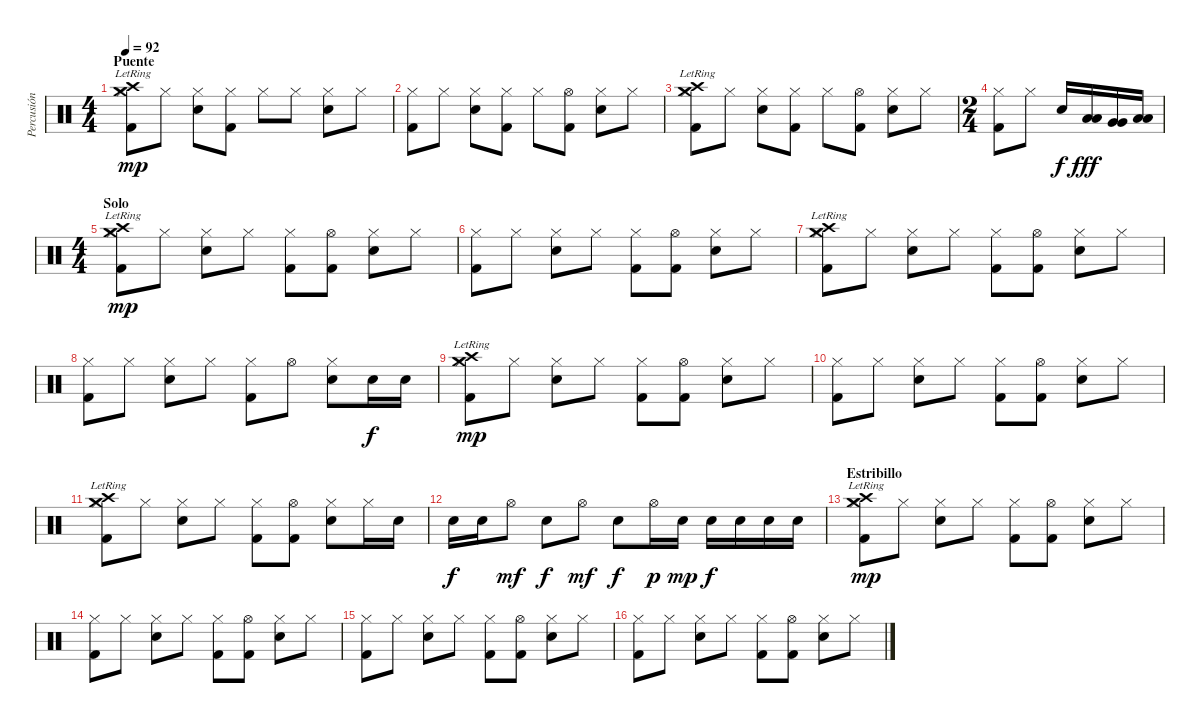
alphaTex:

\track ("Percusión" "Percusión") {instrument percussion}
\staff {score}
\articulation defaults
\ts (4 4)
\section ("" "Puente")
\tempo 92
\clef neutral
\ks c
("Crash high (hit)"{lr} "Crash medium (hit)" "Kick (hit) 2" "Hi-Hat (closed)").8{dy mp} "Hi-Hat (closed)".8 ("Snare (hit) 2" "Hi-Hat (closed)").8 ("Kick (hit) 2" "Hi-Hat (closed)").8 "Hi-Hat (closed)".8 "Hi-Hat (closed)".8 ("Snare (hit) 2" "Hi-Hat (closed)").8 "Hi-Hat (closed)".8 |
("Kick (hit) 2" "Hi-Hat (closed)").8 "Hi-Hat (closed)".8 ("Snare (hit) 2" "Hi-Hat (closed)").8 ("Kick (hit) 2" "Hi-Hat (closed)").8 "Hi-Hat (closed)".8 ("Kick (hit) 2" "Hi-Hat (open)").8 ("Snare (hit) 2" "Hi-Hat (closed)").8 "Hi-Hat (closed)".8 |
("Crash high (hit)"{lr} "Crash medium (hit)" "Kick (hit) 2" "Hi-Hat (closed)").8 "Hi-Hat (closed)".8 ("Snare (hit) 2" "Hi-Hat (closed)").8 ("Kick (hit) 2" "Hi-Hat (closed)").8 "Hi-Hat (closed)".8 ("Kick (hit) 2" "Hi-Hat (open)").8 ("Snare (hit) 2" "Hi-Hat (closed)").8 "Hi-Hat (closed)".8 |
\ts (2 4)
("Kick (hit) 2" "Hi-Hat (closed)").8 "Hi-Hat (closed)".8 "Snare (hit) 2".16{dy f} ("Low Tom (hit)" "Low Tom (hit)").16{dy fff} ("Very Low Tom (hit)" "Very Low Tom (hit)").16 ("Low Floor Tom (hit)" "Low Floor Tom (hit)").16 |
\ts (4 4)
\section ("" "Solo")
("Crash high (hit)"{lr} "Crash medium (hit)" "Kick (hit) 2" "Hi-Hat (closed)").8{dy mp} "Hi-Hat (closed)".8 ("Snare (hit) 2" "Hi-Hat (closed)").8 "Hi-Hat (closed)".8 ("Kick (hit) 2" "Hi-Hat (closed)").8 ("Kick (hit) 2" "Hi-Hat (open)").8 ("Snare (hit) 2" "Hi-Hat (closed)").8 "Hi-Hat (closed)".8 |
("Kick (hit) 2" "Hi-Hat (closed)").8 "Hi-Hat (closed)".8 ("Snare (hit) 2" "Hi-Hat (closed)").8 "Hi-Hat (closed)".8 ("Kick (hit) 2" "Hi-Hat (closed)").8 ("Kick (hit) 2" "Hi-Hat (open)").8 ("Snare (hit) 2" "Hi-Hat (closed)").8 "Hi-Hat (closed)".8 |
("Crash high (hit)"{lr} "Crash medium (hit)" "Kick (hit) 2" "Hi-Hat (closed)").8 "Hi-Hat (closed)".8 ("Snare (hit) 2" "Hi-Hat (closed)").8 "Hi-Hat (closed)".8 ("Kick (hit) 2" "Hi-Hat (closed)").8 ("Kick (hit) 2" "Hi-Hat (open)").8 ("Snare (hit) 2" "Hi-Hat (closed)").8 "Hi-Hat (closed)".8 |
("Kick (hit) 2" "Hi-Hat (closed)").8 "Hi-Hat (closed)".8 ("Snare (hit) 2" "Hi-Hat (closed)").8 "Hi-Hat (closed)".8 ("Kick (hit) 2" "Hi-Hat (closed)").8 "Hi-Hat (open)".8 ("Snare (hit) 2" "Hi-Hat (closed)").8 "Snare (hit) 2".16{dy f} "Snare (hit) 2".16 |
("Crash high (hit)"{lr} "Crash medium (hit)" "Kick (hit) 2" "Hi-Hat (closed)").8{dy mp} "Hi-Hat (closed)".8 ("Snare (hit) 2" "Hi-Hat (closed)").8 "Hi-Hat (closed)".8 ("Kick (hit) 2" "Hi-Hat (closed)").8 ("Kick (hit) 2" "Hi-Hat (open)").8 ("Snare (hit) 2" "Hi-Hat (closed)").8 "Hi-Hat (closed)".8 |
("Kick (hit) 2" "Hi-Hat (closed)").8 "Hi-Hat (closed)".8 ("Snare (hit) 2" "Hi-Hat (closed)").8 "Hi-Hat (closed)".8 ("Kick (hit) 2" "Hi-Hat (closed)").8 ("Kick (hit) 2" "Hi-Hat (open)").8 ("Snare (hit) 2" "Hi-Hat (closed)").8 "Hi-Hat (closed)".8 |
("Crash high (hit)"{lr} "Crash medium (hit)" "Kick (hit) 2" "Hi-Hat (closed)").8 "Hi-Hat (closed)".8 ("Snare (hit) 2" "Hi-Hat (closed)").8 "Hi-Hat (closed)".8 ("Kick (hit) 2" "Hi-Hat (closed)").8 ("Kick (hit) 2" "Hi-Hat (open)").8 ("Snare (hit) 2" "Hi-Hat (closed)").8 "Hi-Hat (closed)".16 "Snare (hit) 2".16 |
"Snare (hit) 2".16{dy f} "Snare (hit) 2".16 "Hi-Hat (open)".8{dy mf} "Snare (hit) 2".8{dy f} "Hi-Hat (open)".8{dy mf} "Snare (hit) 2".8{dy f} "Hi-Hat (open)".16{dy p} "Snare (hit) 2".16{dy mp} "Snare (hit) 2".16{dy f} "Snare (hit) 2".16 "Snare (hit) 2".16 "Snare (hit) 2".16 |
\section ("" "Estribillo")
("Crash high (hit)"{lr} "Crash medium (hit)" "Kick (hit) 2" "Hi-Hat (closed)").8{dy mp} "Hi-Hat (closed)".8 ("Snare (hit) 2" "Hi-Hat (closed)").8 "Hi-Hat (closed)".8 ("Kick (hit) 2" "Hi-Hat (closed)").8 ("Kick (hit) 2" "Hi-Hat (open)").8 ("Snare (hit) 2" "Hi-Hat (closed)").8 "Hi-Hat (closed)".8 |
("Kick (hit) 2" "Hi-Hat (closed)").8 "Hi-Hat (closed)".8 ("Snare (hit) 2" "Hi-Hat (closed)").8 "Hi-Hat (closed)".8 ("Kick (hit) 2" "Hi-Hat (closed)").8 ("Kick (hit) 2" "Hi-Hat (open)").8 ("Snare (hit) 2" "Hi-Hat (closed)").8 "Hi-Hat (closed)".8 |
("Kick (hit) 2" "Hi-Hat (closed)").8 "Hi-Hat (closed)".8 ("Snare (hit) 2" "Hi-Hat (closed)").8 "Hi-Hat (closed)".8 ("Kick (hit) 2" "Hi-Hat (closed)").8 ("Kick (hit) 2" "Hi-Hat (open)").8 ("Snare (hit) 2" "Hi-Hat (closed)").8 "Hi-Hat (closed)".8 |
("Kick (hit) 2" "Hi-Hat (closed)").8 "Hi-Hat (closed)".8 ("Snare (hit) 2" "Hi-Hat (closed)").8 "Hi-Hat (closed)".8 ("Kick (hit) 2" "Hi-Hat (closed)").8 ("Kick (hit) 2" "Hi-Hat (open)").8 ("Snare (hit) 2" "Hi-Hat (closed)").8 "Hi-Hat (closed)".8
